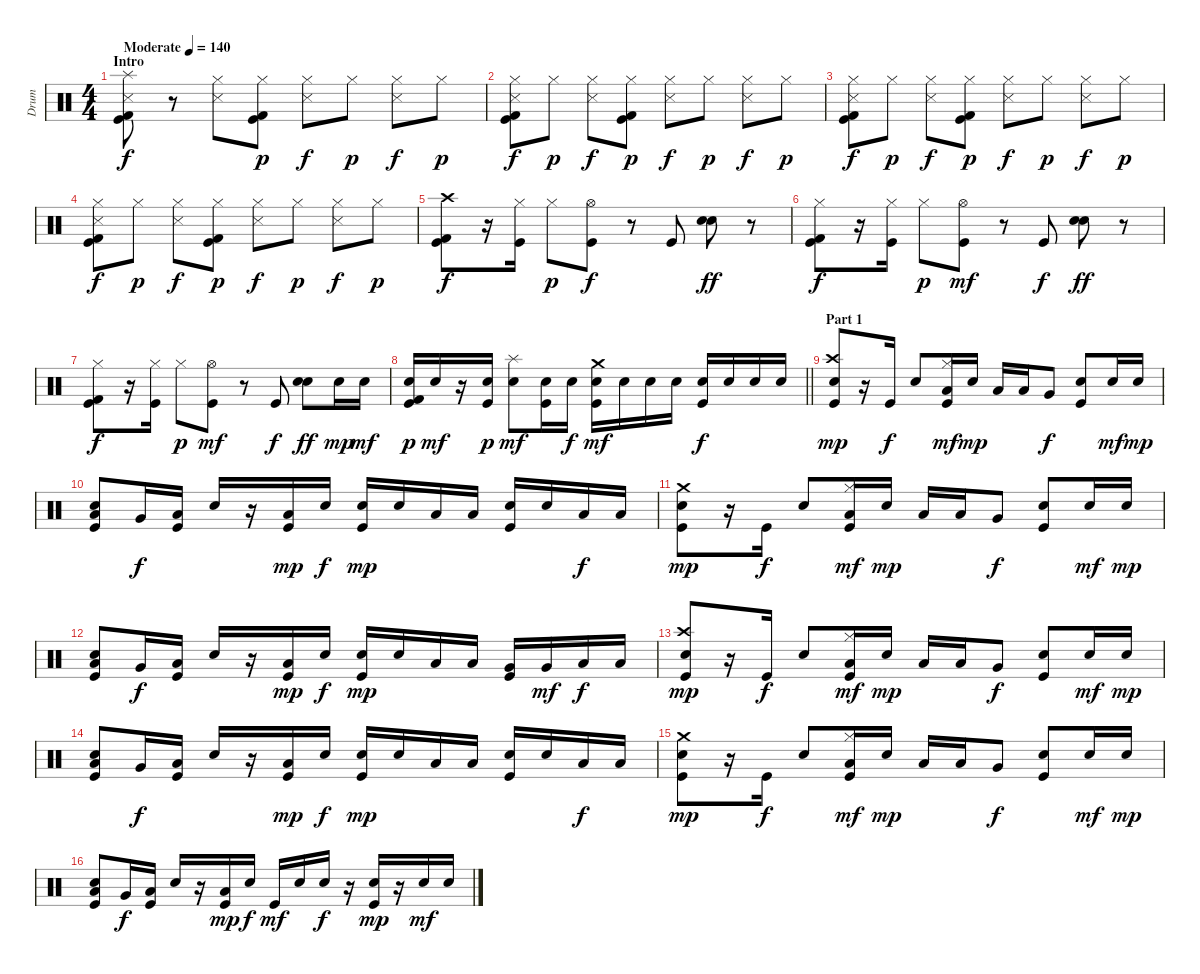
\track ("Drum" "Drum") {instrument percussion}
\staff {score}
\articulation defaults
\ts (4 4)
\section ("" "Intro")
\tempo (140 "Moderate")
\clef neutral
\ks c
("Splash (hit)" "Metronome (hit)" "Kick (hit)" "Kick (hit) 2").8{dy f} r.8 ("Hi-Hat (closed)" "Metronome (hit)").8 ("Hi-Hat (closed)" "Kick (hit)" "Kick (hit) 2").8{dy p} ("Hi-Hat (closed)" "Metronome (hit)").8{dy f} "Hi-Hat (closed)".8{dy p} ("Hi-Hat (closed)" "Metronome (hit)").8{dy f} "Hi-Hat (closed)".8{dy p} |
("Hi-Hat (closed)" "Metronome (hit)" "Kick (hit)" "Kick (hit) 2").8{dy f} "Hi-Hat (closed)".8{dy p} ("Hi-Hat (closed)" "Metronome (hit)").8{dy f} ("Hi-Hat (closed)" "Kick (hit)" "Kick (hit) 2").8{dy p} ("Hi-Hat (closed)" "Metronome (hit)").8{dy f} "Hi-Hat (closed)".8{dy p} ("Hi-Hat (closed)" "Metronome (hit)").8{dy f} "Hi-Hat (closed)".8{dy p} |
("Hi-Hat (closed)" "Metronome (hit)" "Kick (hit)" "Kick (hit) 2").8{dy f} "Hi-Hat (closed)".8{dy p} ("Hi-Hat (closed)" "Metronome (hit)").8{dy f} ("Hi-Hat (closed)" "Kick (hit)" "Kick (hit) 2").8{dy p} ("Hi-Hat (closed)" "Metronome (hit)").8{dy f} "Hi-Hat (closed)".8{dy p} ("Hi-Hat (closed)" "Metronome (hit)").8{dy f} "Hi-Hat (closed)".8{dy p} |
("Hi-Hat (closed)" "Metronome (hit)" "Kick (hit)" "Kick (hit) 2").8{dy f} "Hi-Hat (closed)".8{dy p} ("Hi-Hat (closed)" "Metronome (hit)").8{dy f} ("Hi-Hat (closed)" "Kick (hit)" "Kick (hit) 2").8{dy p} ("Hi-Hat (closed)" "Metronome (hit)").8{dy f} "Hi-Hat (closed)".8{dy p} ("Hi-Hat (closed)" "Metronome (hit)").8{dy f} "Hi-Hat (closed)".8{dy p} |
("Crash high (hit)" "Kick (hit)" "Kick (hit) 2").8{dy f} r.16 ("Hi-Hat (closed)" "Kick (hit)").16 "Hi-Hat (closed)".8{dy p} ("Hi-Hat (open)" "Kick (hit)").8{dy f} r.8 "Kick (hit)".8 ("Snare (hit) 2" "Electric Snare (hit)").8{dy ff} r.8 |
("Hi-Hat (closed)" "Kick (hit)" "Kick (hit) 2").8{dy f} r.16 ("Hi-Hat (closed)" "Kick (hit)").16 "Hi-Hat (closed)".8{dy p} ("Hi-Hat (open)" "Kick (hit)").8{dy mf} r.8 "Kick (hit)".8{dy f} ("Snare (hit) 2" "Electric Snare (hit)").8{dy ff} r.8 |
("Hi-Hat (closed)" "Kick (hit)" "Kick (hit) 2").8{dy f} r.16 ("Hi-Hat (closed)" "Kick (hit)").16 "Hi-Hat (closed)".8{dy p} ("Hi-Hat (open)" "Kick (hit)").8{dy mf} r.8 "Kick (hit)".8{dy f} ("Snare (hit) 2" "Electric Snare (hit)").8{dy ff} "Electric Snare (hit)".16{dy mp} "Electric Snare (hit)".16{dy mf} |
\barLineRight lightlight
("Electric Snare (hit)" "Kick (hit)" "Kick (hit) 2").16{dy p} "Electric Snare (hit)".16{dy mf} r.16 ("Electric Snare (hit)" "Kick (hit)").16{dy p} ("Splash (hit)" "Electric Snare (hit)").8{dy mf} ("Snare (hit) 2" "Kick (hit)").16 "Electric Snare (hit)".16{dy f} ("Crash medium (hit)" "Electric Snare (hit)" "Kick (hit)").16{dy mf} "Electric Snare (hit)".16 "Electric Snare (hit)".16 "Electric Snare (hit)".16 ("Electric Snare (hit)" "Kick (hit)").16{dy f} "Electric Snare (hit)".16 "Electric Snare (hit)".16 "Electric Snare (hit)".16 |
\section ("" "Part 1")
("Crash high (hit)" "Electric Snare (hit)" "Kick (hit)").8{dy mp} r.16 "Kick (hit)".16{dy f} "Electric Snare (hit)".8 ("Low Tom (hit)" "Hi-Hat (closed)" "Kick (hit)").16{dy mf} "Electric Snare (hit)".16{dy mp} "Low Tom (hit)".16 "Low Floor Tom (hit)".16 "Very Low Tom (hit)".8{dy f} ("Electric Snare (hit)" "Kick (hit)").8 "Electric Snare (hit)".16{dy mf} "Electric Snare (hit)".16{dy mp} |
("Low Tom (hit)" "Electric Snare (hit)" "Kick (hit)").8 "Very Low Tom (hit)".16{dy f} ("Low Floor Tom (hit)" "Kick (hit)").16 "Electric Snare (hit)".16 r.16 ("Low Tom (hit)" "Kick (hit)").16{dy mp} "Electric Snare (hit)".16{dy f} ("Electric Snare (hit)" "Kick (hit)").16{dy mp} "Electric Snare (hit)".16 "Low Tom (hit)".16 "Low Tom (hit)".16 ("Electric Snare (hit)" "Kick (hit)").16 "Electric Snare (hit)".16 "Low Floor Tom (hit)".16{dy f} "Low Floor Tom (hit)".16 |
("Crash medium (hit)" "Electric Snare (hit)" "Kick (hit)").8{dy mp} r.16 "Kick (hit)".16{dy f} "Electric Snare (hit)".8 ("Low Tom (hit)" "Hi-Hat (closed)" "Kick (hit)").16{dy mf} "Electric Snare (hit)".16{dy mp} "Low Tom (hit)".16 "Low Floor Tom (hit)".16 "Very Low Tom (hit)".8{dy f} ("Electric Snare (hit)" "Kick (hit)").8 "Electric Snare (hit)".16{dy mf} "Electric Snare (hit)".16{dy mp} |
("Low Tom (hit)" "Electric Snare (hit)" "Kick (hit)").8 "Very Low Tom (hit)".16{dy f} ("Low Floor Tom (hit)" "Kick (hit)").16 "Electric Snare (hit)".16 r.16 ("Low Tom (hit)" "Kick (hit)").16{dy mp} "Electric Snare (hit)".16{dy f} ("Electric Snare (hit)" "Kick (hit)").16{dy mp} "Electric Snare (hit)".16 "Low Tom (hit)".16 "Low Tom (hit)".16 ("Very Low Tom (hit)" "Kick (hit)").16 "Very Low Tom (hit)".16{dy mf} "Low Floor Tom (hit)".16{dy f} "Low Floor Tom (hit)".16 |
("Crash high (hit)" "Electric Snare (hit)" "Kick (hit)").8{dy mp} r.16 "Kick (hit)".16{dy f} "Electric Snare (hit)".8 ("Low Tom (hit)" "Hi-Hat (closed)" "Kick (hit)").16{dy mf} "Electric Snare (hit)".16{dy mp} "Low Tom (hit)".16 "Low Floor Tom (hit)".16 "Very Low Tom (hit)".8{dy f} ("Electric Snare (hit)" "Kick (hit)").8 "Electric Snare (hit)".16{dy mf} "Electric Snare (hit)".16{dy mp} |
("Low Tom (hit)" "Electric Snare (hit)" "Kick (hit)").8 "Very Low Tom (hit)".16{dy f} ("Low Floor Tom (hit)" "Kick (hit)").16 "Electric Snare (hit)".16 r.16 ("Low Tom (hit)" "Kick (hit)").16{dy mp} "Electric Snare (hit)".16{dy f} ("Electric Snare (hit)" "Kick (hit)").16{dy mp} "Electric Snare (hit)".16 "Low Tom (hit)".16 "Low Tom (hit)".16 ("Electric Snare (hit)" "Kick (hit)").16 "Electric Snare (hit)".16 "Low Floor Tom (hit)".16{dy f} "Low Floor Tom (hit)".16 |
("Crash medium (hit)" "Electric Snare (hit)" "Kick (hit)").8{dy mp} r.16 "Kick (hit)".16{dy f} "Electric Snare (hit)".8 ("Low Tom (hit)" "Hi-Hat (closed)" "Kick (hit)").16{dy mf} "Electric Snare (hit)".16{dy mp} "Low Tom (hit)".16 "Low Floor Tom (hit)".16 "Very Low Tom (hit)".8{dy f} ("Electric Snare (hit)" "Kick (hit)").8 "Electric Snare (hit)".16{dy mf} "Electric Snare (hit)".16{dy mp} |
("Low Tom (hit)" "Electric Snare (hit)" "Kick (hit)").8 "Very Low Tom (hit)".16{dy f} ("Low Floor Tom (hit)" "Kick (hit)").16 "Electric Snare (hit)".16 r.16 ("Low Tom (hit)" "Kick (hit)").16{dy mp} "Electric Snare (hit)".16{dy f} "Kick (hit)".16{dy mf} "Electric Snare (hit)".16 "Electric Snare (hit)".16{dy f} r.16 ("Electric Snare (hit)" "Kick (hit)").16{dy mp} r.16 "Electric Snare (hit)".16{dy mf} "Electric Snare (hit)".16
